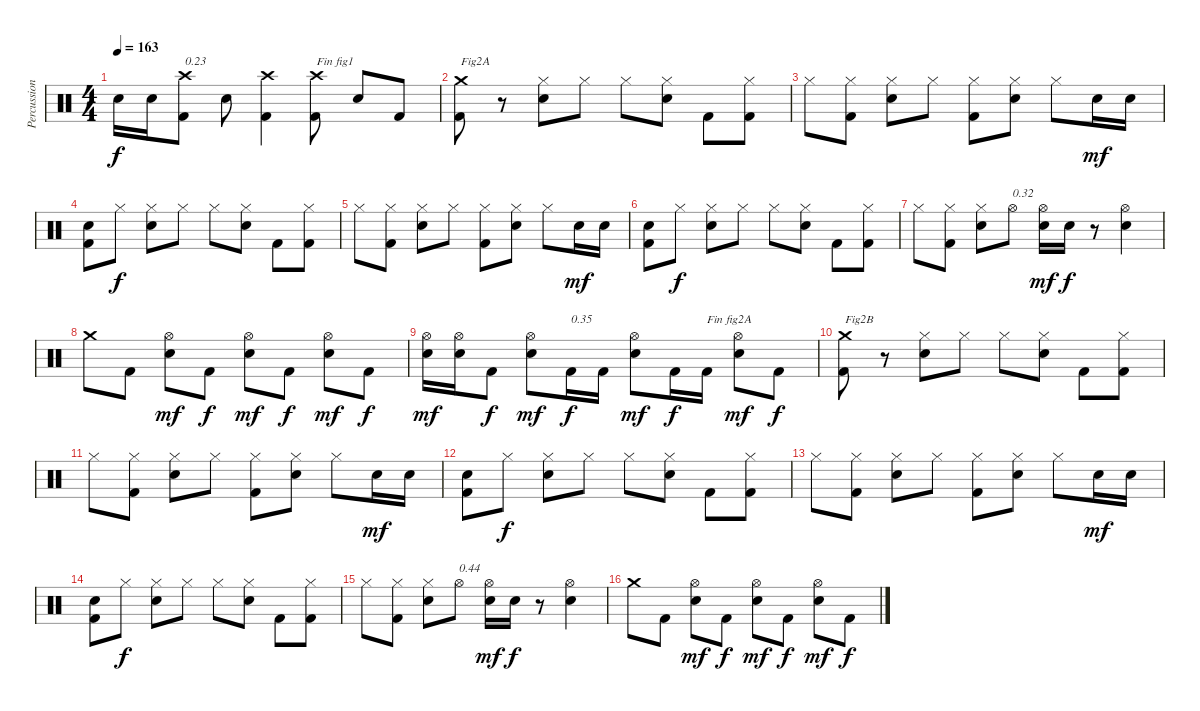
\track ("Percussions" "Percussion") {instrument percussion}
\staff {score}
\articulation defaults
\ts (4 4)
\tempo 163
\clef neutral
\ks c "Electric Snare (hit)".16{dy f} "Electric Snare (hit)".16
("Kick (hit) 2" "Crash high (hit)").8{txt "0.23"} "Electric Snare (hit)".8 ("Kick (hit) 2" "Crash high (hit)").4 ("Kick (hit) 2" "Crash high (hit)").8{txt "Fin fig1"} "Electric Snare (hit)".8 "Kick (hit) 2".8 |
("Kick (hit) 2" "Crash medium (hit)").8{txt "Fig2A"} r.8 ("Electric Snare (hit)" "Hi-Hat (closed)").8 "Hi-Hat (closed)".8 "Hi-Hat (closed)".8 ("Electric Snare (hit)" "Hi-Hat (closed)").8 "Kick (hit) 2".8 ("Kick (hit) 2" "Hi-Hat (closed)").8 |
"Hi-Hat (closed)".8 ("Kick (hit) 2" "Hi-Hat (closed)").8 ("Electric Snare (hit)" "Hi-Hat (closed)").8 "Hi-Hat (closed)".8 ("Kick (hit) 2" "Hi-Hat (closed)").8 ("Electric Snare (hit)" "Hi-Hat (closed)").8 "Hi-Hat (closed)".8 "Electric Snare (hit)".16{dy mf} "Electric Snare (hit)".16 |
("Kick (hit) 2" "Electric Snare (hit)").8 "Hi-Hat (closed)".8{dy f} ("Electric Snare (hit)" "Hi-Hat (closed)").8 "Hi-Hat (closed)".8 "Hi-Hat (closed)".8 ("Electric Snare (hit)" "Hi-Hat (closed)").8 "Kick (hit) 2".8 ("Kick (hit) 2" "Hi-Hat (closed)").8 |
"Hi-Hat (closed)".8 ("Kick (hit) 2" "Hi-Hat (closed)").8 ("Electric Snare (hit)" "Hi-Hat (closed)").8 "Hi-Hat (closed)".8 ("Kick (hit) 2" "Hi-Hat (closed)").8 ("Electric Snare (hit)" "Hi-Hat (closed)").8 "Hi-Hat (closed)".8 "Electric Snare (hit)".16{dy mf} "Electric Snare (hit)".16 |
("Kick (hit) 2" "Electric Snare (hit)").8 "Hi-Hat (closed)".8{dy f} ("Electric Snare (hit)" "Hi-Hat (closed)").8 "Hi-Hat (closed)".8 "Hi-Hat (closed)".8 ("Electric Snare (hit)" "Hi-Hat (closed)").8 "Kick (hit) 2".8 ("Kick (hit) 2" "Hi-Hat (closed)").8 |
"Hi-Hat (closed)".8 ("Kick (hit) 2" "Hi-Hat (closed)").8 ("Electric Snare (hit)" "Hi-Hat (closed)").8 "Hi-Hat (open)".8{txt "0.32"} ("Electric Snare (hit)" "Hi-Hat (open)").16{dy mf} "Electric Snare (hit)".16{dy f} r.8 ("Electric Snare (hit)" "Hi-Hat (open)").4 |
"Crash medium (hit)".8 "Kick (hit) 2".8 ("Electric Snare (hit)" "Hi-Hat (open)").8{dy mf} "Kick (hit) 2".8{dy f} ("Electric Snare (hit)" "Hi-Hat (open)").8{dy mf} "Kick (hit) 2".8{dy f} ("Electric Snare (hit)" "Hi-Hat (open)").8{dy mf} "Kick (hit) 2".8{dy f} |
("Electric Snare (hit)" "Hi-Hat (open)").16{dy mf} ("Electric Snare (hit)" "Hi-Hat (open)").16 "Kick (hit) 2".8{dy f} ("Electric Snare (hit)" "Hi-Hat (open)").8{dy mf} "Kick (hit) 2".16{txt "0.35" dy f} "Kick (hit) 2".16 ("Electric Snare (hit)" "Hi-Hat (open)").8{dy mf} "Kick (hit) 2".16{dy f} "Kick (hit) 2".16{txt "Fin fig2A"} ("Electric Snare (hit)" "Hi-Hat (open)").8{dy mf} "Kick (hit) 2".8{dy f} |
("Kick (hit) 2" "Crash medium (hit)").8{txt "Fig2B"} r.8 ("Electric Snare (hit)" "Hi-Hat (closed)").8 "Hi-Hat (closed)".8 "Hi-Hat (closed)".8 ("Electric Snare (hit)" "Hi-Hat (closed)").8 "Kick (hit) 2".8 ("Kick (hit) 2" "Hi-Hat (closed)").8 |
"Hi-Hat (closed)".8 ("Kick (hit) 2" "Hi-Hat (closed)").8 ("Electric Snare (hit)" "Hi-Hat (closed)").8 "Hi-Hat (closed)".8 ("Kick (hit) 2" "Hi-Hat (closed)").8 ("Electric Snare (hit)" "Hi-Hat (closed)").8 "Hi-Hat (closed)".8 "Electric Snare (hit)".16{dy mf} "Electric Snare (hit)".16 |
("Kick (hit) 2" "Electric Snare (hit)").8 "Hi-Hat (closed)".8{dy f} ("Electric Snare (hit)" "Hi-Hat (closed)").8 "Hi-Hat (closed)".8 "Hi-Hat (closed)".8 ("Electric Snare (hit)" "Hi-Hat (closed)").8 "Kick (hit) 2".8 ("Kick (hit) 2" "Hi-Hat (closed)").8 |
"Hi-Hat (closed)".8 ("Kick (hit) 2" "Hi-Hat (closed)").8 ("Electric Snare (hit)" "Hi-Hat (closed)").8 "Hi-Hat (closed)".8 ("Kick (hit) 2" "Hi-Hat (closed)").8 ("Electric Snare (hit)" "Hi-Hat (closed)").8 "Hi-Hat (closed)".8 "Electric Snare (hit)".16{dy mf} "Electric Snare (hit)".16 |
("Kick (hit) 2" "Electric Snare (hit)").8 "Hi-Hat (closed)".8{dy f} ("Electric Snare (hit)" "Hi-Hat (closed)").8 "Hi-Hat (closed)".8 "Hi-Hat (closed)".8 ("Electric Snare (hit)" "Hi-Hat (closed)").8 "Kick (hit) 2".8 ("Kick (hit) 2" "Hi-Hat (closed)").8 |
"Hi-Hat (closed)".8 ("Kick (hit) 2" "Hi-Hat (closed)").8 ("Electric Snare (hit)" "Hi-Hat (closed)").8 "Hi-Hat (open)".8{txt "0.44"} ("Electric Snare (hit)" "Hi-Hat (open)").16{dy mf} "Electric Snare (hit)".16{dy f} r.8 ("Electric Snare (hit)" "Hi-Hat (open)").4 |
"Crash medium (hit)".8 "Kick (hit) 2".8 ("Electric Snare (hit)" "Hi-Hat (open)").8{dy mf} "Kick (hit) 2".8{dy f} ("Electric Snare (hit)" "Hi-Hat (open)").8{dy mf} "Kick (hit) 2".8{dy f} ("Electric Snare (hit)" "Hi-Hat (open)").8{dy mf} "Kick (hit) 2".8{dy f}
